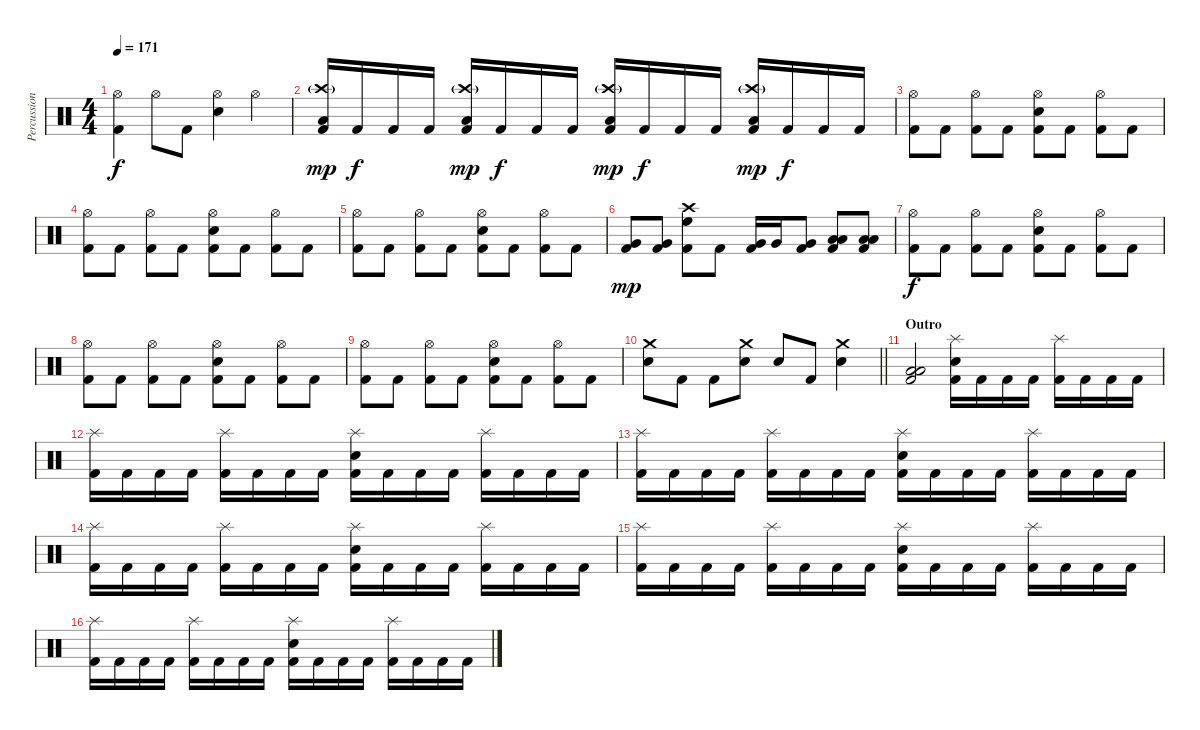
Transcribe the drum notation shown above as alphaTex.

\track ("Percussion" "Percussion") {instrument percussion}
\staff {score}
\articulation defaults
\ts (4 4)
\tempo 171
\clef neutral
\ks c
("Hi-Hat (open)" "Kick (hit) 2").4{dy f} "Hi-Hat (open)".8 "Kick (hit) 2".8 ("Hi-Hat (open)" "Snare (hit) 2").4 "Hi-Hat (open)".4 |
("Crash high (hit)"{g} "Low Floor Tom (hit)" "Kick (hit) 2").16{dy mp} "Kick (hit) 2".16{dy f} "Kick (hit) 2".16 "Kick (hit) 2".16 ("Crash high (hit)"{g} "Low Floor Tom (hit)" "Kick (hit) 2").16{dy mp} "Kick (hit) 2".16{dy f} "Kick (hit) 2".16 "Kick (hit) 2".16 ("Crash high (hit)"{g} "Low Floor Tom (hit)" "Kick (hit) 2").16{dy mp} "Kick (hit) 2".16{dy f} "Kick (hit) 2".16 "Kick (hit) 2".16 ("Crash high (hit)"{g} "Low Floor Tom (hit)" "Kick (hit) 2").16{dy mp} "Kick (hit) 2".16{dy f} "Kick (hit) 2".16 "Kick (hit) 2".16 |
("Hi-Hat (open)" "Kick (hit) 2").8 "Kick (hit) 2".8 ("Hi-Hat (open)" "Kick (hit) 2").8 "Kick (hit) 2".8 ("Hi-Hat (open)" "Snare (hit) 2" "Kick (hit) 2").8 "Kick (hit) 2".8 ("Hi-Hat (open)" "Kick (hit) 2").8 "Kick (hit) 2".8 |
("Hi-Hat (open)" "Kick (hit) 2").8 "Kick (hit) 2".8 ("Hi-Hat (open)" "Kick (hit) 2").8 "Kick (hit) 2".8 ("Hi-Hat (open)" "Snare (hit) 2" "Kick (hit) 2").8 "Kick (hit) 2".8 ("Hi-Hat (open)" "Kick (hit) 2").8 "Kick (hit) 2".8 |
("Hi-Hat (open)" "Kick (hit) 2").8 "Kick (hit) 2".8 ("Hi-Hat (open)" "Kick (hit) 2").8 "Kick (hit) 2".8 ("Hi-Hat (open)" "Snare (hit) 2" "Kick (hit) 2").8 "Kick (hit) 2".8 ("Hi-Hat (open)" "Kick (hit) 2").8 "Kick (hit) 2".8 |
("Very Low Tom (hit)" "Kick (hit) 2").8{dy mp} ("Very Low Tom (hit)" "Kick (hit) 2").8 ("Crash high (hit)" "High Floor Tom (hit)" "Kick (hit) 2").8 "Kick (hit) 2".8 ("Very Low Tom (hit)" "Kick (hit) 2").16 "Very Low Tom (hit)".16 ("Very Low Tom (hit)" "Kick (hit) 2").8 ("Low Floor Tom (hit)" "Low Floor Tom (hit)" "Kick (hit) 2").8 ("Low Floor Tom (hit)" "Low Floor Tom (hit)" "Kick (hit) 2").8 |
("Hi-Hat (open)" "Kick (hit) 2").8{dy f} "Kick (hit) 2".8 ("Hi-Hat (open)" "Kick (hit) 2").8 "Kick (hit) 2".8 ("Hi-Hat (open)" "Snare (hit) 2" "Kick (hit) 2").8 "Kick (hit) 2".8 ("Hi-Hat (open)" "Kick (hit) 2").8 "Kick (hit) 2".8 |
("Hi-Hat (open)" "Kick (hit) 2").8 "Kick (hit) 2".8 ("Hi-Hat (open)" "Kick (hit) 2").8 "Kick (hit) 2".8 ("Hi-Hat (open)" "Snare (hit) 2" "Kick (hit) 2").8 "Kick (hit) 2".8 ("Hi-Hat (open)" "Kick (hit) 2").8 "Kick (hit) 2".8 |
("Hi-Hat (open)" "Kick (hit) 2").8 "Kick (hit) 2".8 ("Hi-Hat (open)" "Kick (hit) 2").8 "Kick (hit) 2".8 ("Hi-Hat (open)" "Snare (hit) 2" "Kick (hit) 2").8 "Kick (hit) 2".8 ("Hi-Hat (open)" "Kick (hit) 2").8 "Kick (hit) 2".8 |
\barLineRight lightlight
("Crash medium (hit)" "Snare (hit) 2").8 "Kick (hit) 2".8 "Kick (hit) 2".8 ("Crash medium (hit)" "Snare (hit) 2").8 "Snare (hit) 2".8 "Kick (hit) 2".8 ("Crash medium (hit)" "Snare (hit) 2").4 |
\section ("" "Outro")
("Low Floor Tom (hit)" "Low Floor Tom (hit)" "Kick (hit) 2").2 ("Splash (hit)" "Snare (hit) 2" "Kick (hit) 2").16 "Kick (hit) 2".16 "Kick (hit) 2".16 "Kick (hit) 2".16 ("Splash (hit)" "Kick (hit) 2").16 "Kick (hit) 2".16 "Kick (hit) 2".16 "Kick (hit) 2".16 |
("Splash (hit)" "Kick (hit) 2").16 "Kick (hit) 2".16 "Kick (hit) 2".16 "Kick (hit) 2".16 ("Splash (hit)" "Kick (hit) 2").16 "Kick (hit) 2".16 "Kick (hit) 2".16 "Kick (hit) 2".16 ("Splash (hit)" "Snare (hit) 2" "Kick (hit) 2").16 "Kick (hit) 2".16 "Kick (hit) 2".16 "Kick (hit) 2".16 ("Splash (hit)" "Kick (hit) 2").16 "Kick (hit) 2".16 "Kick (hit) 2".16 "Kick (hit) 2".16 |
("Splash (hit)" "Kick (hit) 2").16 "Kick (hit) 2".16 "Kick (hit) 2".16 "Kick (hit) 2".16 ("Splash (hit)" "Kick (hit) 2").16 "Kick (hit) 2".16 "Kick (hit) 2".16 "Kick (hit) 2".16 ("Splash (hit)" "Snare (hit) 2" "Kick (hit) 2").16 "Kick (hit) 2".16 "Kick (hit) 2".16 "Kick (hit) 2".16 ("Splash (hit)" "Kick (hit) 2").16 "Kick (hit) 2".16 "Kick (hit) 2".16 "Kick (hit) 2".16 |
("Splash (hit)" "Kick (hit) 2").16 "Kick (hit) 2".16 "Kick (hit) 2".16 "Kick (hit) 2".16 ("Splash (hit)" "Kick (hit) 2").16 "Kick (hit) 2".16 "Kick (hit) 2".16 "Kick (hit) 2".16 ("Splash (hit)" "Snare (hit) 2" "Kick (hit) 2").16 "Kick (hit) 2".16 "Kick (hit) 2".16 "Kick (hit) 2".16 ("Splash (hit)" "Kick (hit) 2").16 "Kick (hit) 2".16 "Kick (hit) 2".16 "Kick (hit) 2".16 |
("Splash (hit)" "Kick (hit) 2").16 "Kick (hit) 2".16 "Kick (hit) 2".16 "Kick (hit) 2".16 ("Splash (hit)" "Kick (hit) 2").16 "Kick (hit) 2".16 "Kick (hit) 2".16 "Kick (hit) 2".16 ("Splash (hit)" "Snare (hit) 2" "Kick (hit) 2").16 "Kick (hit) 2".16 "Kick (hit) 2".16 "Kick (hit) 2".16 ("Splash (hit)" "Kick (hit) 2").16 "Kick (hit) 2".16 "Kick (hit) 2".16 "Kick (hit) 2".16 |
("Splash (hit)" "Kick (hit) 2").16 "Kick (hit) 2".16 "Kick (hit) 2".16 "Kick (hit) 2".16 ("Splash (hit)" "Kick (hit) 2").16 "Kick (hit) 2".16 "Kick (hit) 2".16 "Kick (hit) 2".16 ("Splash (hit)" "Snare (hit) 2" "Kick (hit) 2").16 "Kick (hit) 2".16 "Kick (hit) 2".16 "Kick (hit) 2".16 ("Splash (hit)" "Kick (hit) 2").16 "Kick (hit) 2".16 "Kick (hit) 2".16 "Kick (hit) 2".16
